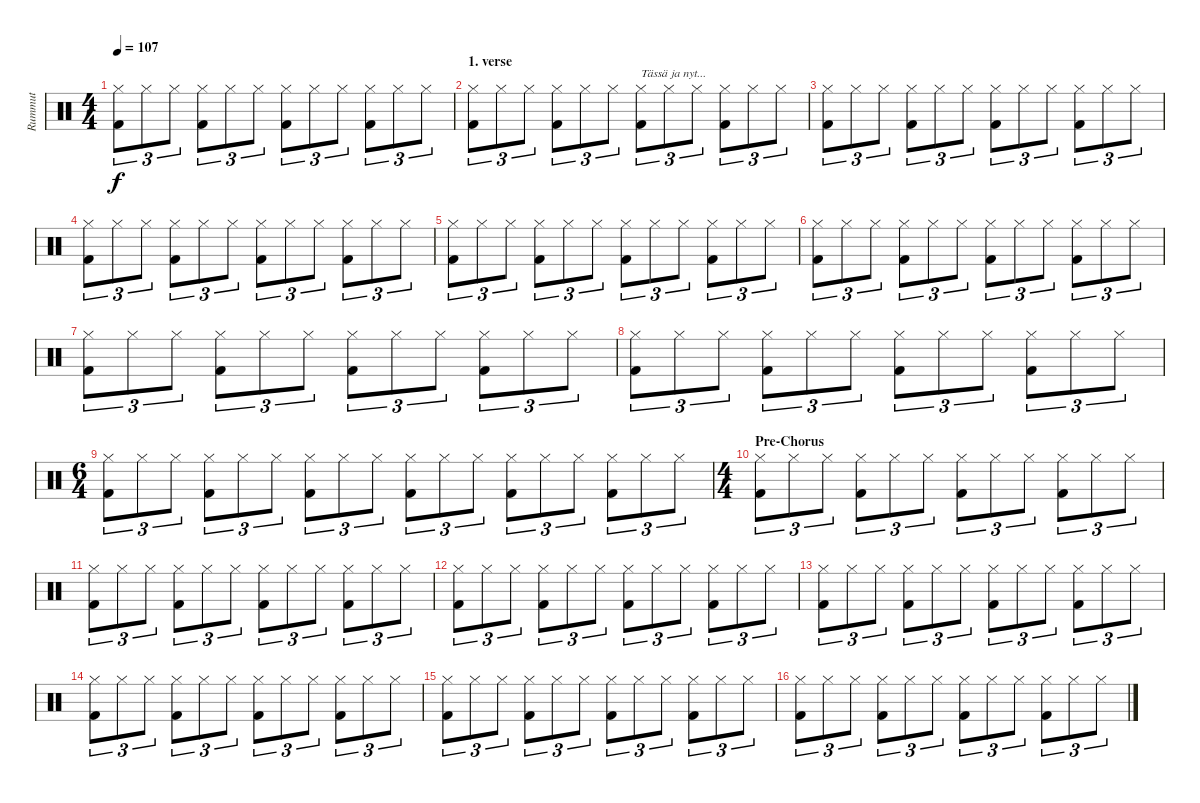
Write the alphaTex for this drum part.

\track ("Rummut" "Rummut") {instrument percussion}
\staff {score}
\articulation defaults
\ts (4 4)
\tempo 107
\clef neutral
\ks c
("Hi-Hat (closed)" "Kick (hit) 2").8{tu (3 2) dy f} "Hi-Hat (closed)".8{tu (3 2)} "Hi-Hat (closed)".8{tu (3 2)} ("Hi-Hat (closed)" "Kick (hit) 2").8{tu (3 2)} "Hi-Hat (closed)".8{tu (3 2)} "Hi-Hat (closed)".8{tu (3 2)} ("Hi-Hat (closed)" "Kick (hit) 2").8{tu (3 2)} "Hi-Hat (closed)".8{tu (3 2)} "Hi-Hat (closed)".8{tu (3 2)} ("Hi-Hat (closed)" "Kick (hit) 2").8{tu (3 2)} "Hi-Hat (closed)".8{tu (3 2)} "Hi-Hat (closed)".8{tu (3 2)} |
\section ("" "1. verse")
("Hi-Hat (closed)" "Kick (hit) 2").8{tu (3 2)} "Hi-Hat (closed)".8{tu (3 2)} "Hi-Hat (closed)".8{tu (3 2)} ("Hi-Hat (closed)" "Kick (hit) 2").8{tu (3 2)} "Hi-Hat (closed)".8{tu (3 2)} "Hi-Hat (closed)".8{tu (3 2)} ("Hi-Hat (closed)" "Kick (hit) 2").8{tu (3 2) txt "Tässä ja nyt..."} "Hi-Hat (closed)".8{tu (3 2)} "Hi-Hat (closed)".8{tu (3 2)} ("Hi-Hat (closed)" "Kick (hit) 2").8{tu (3 2)} "Hi-Hat (closed)".8{tu (3 2)} "Hi-Hat (closed)".8{tu (3 2)} |
("Hi-Hat (closed)" "Kick (hit) 2").8{tu (3 2)} "Hi-Hat (closed)".8{tu (3 2)} "Hi-Hat (closed)".8{tu (3 2)} ("Hi-Hat (closed)" "Kick (hit) 2").8{tu (3 2)} "Hi-Hat (closed)".8{tu (3 2)} "Hi-Hat (closed)".8{tu (3 2)} ("Hi-Hat (closed)" "Kick (hit) 2").8{tu (3 2)} "Hi-Hat (closed)".8{tu (3 2)} "Hi-Hat (closed)".8{tu (3 2)} ("Hi-Hat (closed)" "Kick (hit) 2").8{tu (3 2)} "Hi-Hat (closed)".8{tu (3 2)} "Hi-Hat (closed)".8{tu (3 2)} |
("Hi-Hat (closed)" "Kick (hit) 2").8{tu (3 2)} "Hi-Hat (closed)".8{tu (3 2)} "Hi-Hat (closed)".8{tu (3 2)} ("Hi-Hat (closed)" "Kick (hit) 2").8{tu (3 2)} "Hi-Hat (closed)".8{tu (3 2)} "Hi-Hat (closed)".8{tu (3 2)} ("Hi-Hat (closed)" "Kick (hit) 2").8{tu (3 2)} "Hi-Hat (closed)".8{tu (3 2)} "Hi-Hat (closed)".8{tu (3 2)} ("Hi-Hat (closed)" "Kick (hit) 2").8{tu (3 2)} "Hi-Hat (closed)".8{tu (3 2)} "Hi-Hat (closed)".8{tu (3 2)} |
("Hi-Hat (closed)" "Kick (hit) 2").8{tu (3 2)} "Hi-Hat (closed)".8{tu (3 2)} "Hi-Hat (closed)".8{tu (3 2)} ("Hi-Hat (closed)" "Kick (hit) 2").8{tu (3 2)} "Hi-Hat (closed)".8{tu (3 2)} "Hi-Hat (closed)".8{tu (3 2)} ("Hi-Hat (closed)" "Kick (hit) 2").8{tu (3 2)} "Hi-Hat (closed)".8{tu (3 2)} "Hi-Hat (closed)".8{tu (3 2)} ("Hi-Hat (closed)" "Kick (hit) 2").8{tu (3 2)} "Hi-Hat (closed)".8{tu (3 2)} "Hi-Hat (closed)".8{tu (3 2)} |
("Hi-Hat (closed)" "Kick (hit) 2").8{tu (3 2)} "Hi-Hat (closed)".8{tu (3 2)} "Hi-Hat (closed)".8{tu (3 2)} ("Hi-Hat (closed)" "Kick (hit) 2").8{tu (3 2)} "Hi-Hat (closed)".8{tu (3 2)} "Hi-Hat (closed)".8{tu (3 2)} ("Hi-Hat (closed)" "Kick (hit) 2").8{tu (3 2)} "Hi-Hat (closed)".8{tu (3 2)} "Hi-Hat (closed)".8{tu (3 2)} ("Hi-Hat (closed)" "Kick (hit) 2").8{tu (3 2)} "Hi-Hat (closed)".8{tu (3 2)} "Hi-Hat (closed)".8{tu (3 2)} |
("Hi-Hat (closed)" "Kick (hit) 2").8{tu (3 2)} "Hi-Hat (closed)".8{tu (3 2)} "Hi-Hat (closed)".8{tu (3 2)} ("Hi-Hat (closed)" "Kick (hit) 2").8{tu (3 2)} "Hi-Hat (closed)".8{tu (3 2)} "Hi-Hat (closed)".8{tu (3 2)} ("Hi-Hat (closed)" "Kick (hit) 2").8{tu (3 2)} "Hi-Hat (closed)".8{tu (3 2)} "Hi-Hat (closed)".8{tu (3 2)} ("Hi-Hat (closed)" "Kick (hit) 2").8{tu (3 2)} "Hi-Hat (closed)".8{tu (3 2)} "Hi-Hat (closed)".8{tu (3 2)} |
("Hi-Hat (closed)" "Kick (hit) 2").8{tu (3 2)} "Hi-Hat (closed)".8{tu (3 2)} "Hi-Hat (closed)".8{tu (3 2)} ("Hi-Hat (closed)" "Kick (hit) 2").8{tu (3 2)} "Hi-Hat (closed)".8{tu (3 2)} "Hi-Hat (closed)".8{tu (3 2)} ("Hi-Hat (closed)" "Kick (hit) 2").8{tu (3 2)} "Hi-Hat (closed)".8{tu (3 2)} "Hi-Hat (closed)".8{tu (3 2)} ("Hi-Hat (closed)" "Kick (hit) 2").8{tu (3 2)} "Hi-Hat (closed)".8{tu (3 2)} "Hi-Hat (closed)".8{tu (3 2)} |
\ts (6 4)
("Hi-Hat (closed)" "Kick (hit) 2").8{tu (3 2)} "Hi-Hat (closed)".8{tu (3 2)} "Hi-Hat (closed)".8{tu (3 2)} ("Hi-Hat (closed)" "Kick (hit) 2").8{tu (3 2)} "Hi-Hat (closed)".8{tu (3 2)} "Hi-Hat (closed)".8{tu (3 2)} ("Hi-Hat (closed)" "Kick (hit) 2").8{tu (3 2)} "Hi-Hat (closed)".8{tu (3 2)} "Hi-Hat (closed)".8{tu (3 2)} ("Hi-Hat (closed)" "Kick (hit) 2").8{tu (3 2)} "Hi-Hat (closed)".8{tu (3 2)} "Hi-Hat (closed)".8{tu (3 2)} ("Hi-Hat (closed)" "Kick (hit) 2").8{tu (3 2)} "Hi-Hat (closed)".8{tu (3 2)} "Hi-Hat (closed)".8{tu (3 2)} ("Hi-Hat (closed)" "Kick (hit) 2").8{tu (3 2)} "Hi-Hat (closed)".8{tu (3 2)} "Hi-Hat (closed)".8{tu (3 2)} |
\ts (4 4)
\section ("" "Pre-Chorus")
("Hi-Hat (closed)" "Kick (hit) 2").8{tu (3 2)} "Hi-Hat (closed)".8{tu (3 2)} "Hi-Hat (closed)".8{tu (3 2)} ("Hi-Hat (closed)" "Kick (hit) 2").8{tu (3 2)} "Hi-Hat (closed)".8{tu (3 2)} "Hi-Hat (closed)".8{tu (3 2)} ("Hi-Hat (closed)" "Kick (hit) 2").8{tu (3 2)} "Hi-Hat (closed)".8{tu (3 2)} "Hi-Hat (closed)".8{tu (3 2)} ("Hi-Hat (closed)" "Kick (hit) 2").8{tu (3 2)} "Hi-Hat (closed)".8{tu (3 2)} "Hi-Hat (closed)".8{tu (3 2)} |
("Hi-Hat (closed)" "Kick (hit) 2").8{tu (3 2)} "Hi-Hat (closed)".8{tu (3 2)} "Hi-Hat (closed)".8{tu (3 2)} ("Hi-Hat (closed)" "Kick (hit) 2").8{tu (3 2)} "Hi-Hat (closed)".8{tu (3 2)} "Hi-Hat (closed)".8{tu (3 2)} ("Hi-Hat (closed)" "Kick (hit) 2").8{tu (3 2)} "Hi-Hat (closed)".8{tu (3 2)} "Hi-Hat (closed)".8{tu (3 2)} ("Hi-Hat (closed)" "Kick (hit) 2").8{tu (3 2)} "Hi-Hat (closed)".8{tu (3 2)} "Hi-Hat (closed)".8{tu (3 2)} |
("Hi-Hat (closed)" "Kick (hit) 2").8{tu (3 2)} "Hi-Hat (closed)".8{tu (3 2)} "Hi-Hat (closed)".8{tu (3 2)} ("Hi-Hat (closed)" "Kick (hit) 2").8{tu (3 2)} "Hi-Hat (closed)".8{tu (3 2)} "Hi-Hat (closed)".8{tu (3 2)} ("Hi-Hat (closed)" "Kick (hit) 2").8{tu (3 2)} "Hi-Hat (closed)".8{tu (3 2)} "Hi-Hat (closed)".8{tu (3 2)} ("Hi-Hat (closed)" "Kick (hit) 2").8{tu (3 2)} "Hi-Hat (closed)".8{tu (3 2)} "Hi-Hat (closed)".8{tu (3 2)} |
("Hi-Hat (closed)" "Kick (hit) 2").8{tu (3 2)} "Hi-Hat (closed)".8{tu (3 2)} "Hi-Hat (closed)".8{tu (3 2)} ("Hi-Hat (closed)" "Kick (hit) 2").8{tu (3 2)} "Hi-Hat (closed)".8{tu (3 2)} "Hi-Hat (closed)".8{tu (3 2)} ("Hi-Hat (closed)" "Kick (hit) 2").8{tu (3 2)} "Hi-Hat (closed)".8{tu (3 2)} "Hi-Hat (closed)".8{tu (3 2)} ("Hi-Hat (closed)" "Kick (hit) 2").8{tu (3 2)} "Hi-Hat (closed)".8{tu (3 2)} "Hi-Hat (closed)".8{tu (3 2)} |
("Hi-Hat (closed)" "Kick (hit) 2").8{tu (3 2)} "Hi-Hat (closed)".8{tu (3 2)} "Hi-Hat (closed)".8{tu (3 2)} ("Hi-Hat (closed)" "Kick (hit) 2").8{tu (3 2)} "Hi-Hat (closed)".8{tu (3 2)} "Hi-Hat (closed)".8{tu (3 2)} ("Hi-Hat (closed)" "Kick (hit) 2").8{tu (3 2)} "Hi-Hat (closed)".8{tu (3 2)} "Hi-Hat (closed)".8{tu (3 2)} ("Hi-Hat (closed)" "Kick (hit) 2").8{tu (3 2)} "Hi-Hat (closed)".8{tu (3 2)} "Hi-Hat (closed)".8{tu (3 2)} |
("Hi-Hat (closed)" "Kick (hit) 2").8{tu (3 2)} "Hi-Hat (closed)".8{tu (3 2)} "Hi-Hat (closed)".8{tu (3 2)} ("Hi-Hat (closed)" "Kick (hit) 2").8{tu (3 2)} "Hi-Hat (closed)".8{tu (3 2)} "Hi-Hat (closed)".8{tu (3 2)} ("Hi-Hat (closed)" "Kick (hit) 2").8{tu (3 2)} "Hi-Hat (closed)".8{tu (3 2)} "Hi-Hat (closed)".8{tu (3 2)} ("Hi-Hat (closed)" "Kick (hit) 2").8{tu (3 2)} "Hi-Hat (closed)".8{tu (3 2)} "Hi-Hat (closed)".8{tu (3 2)} |
("Hi-Hat (closed)" "Kick (hit) 2").8{tu (3 2)} "Hi-Hat (closed)".8{tu (3 2)} "Hi-Hat (closed)".8{tu (3 2)} ("Hi-Hat (closed)" "Kick (hit) 2").8{tu (3 2)} "Hi-Hat (closed)".8{tu (3 2)} "Hi-Hat (closed)".8{tu (3 2)} ("Hi-Hat (closed)" "Kick (hit) 2").8{tu (3 2)} "Hi-Hat (closed)".8{tu (3 2)} "Hi-Hat (closed)".8{tu (3 2)} ("Hi-Hat (closed)" "Kick (hit) 2").8{tu (3 2)} "Hi-Hat (closed)".8{tu (3 2)} "Hi-Hat (closed)".8{tu (3 2)}
